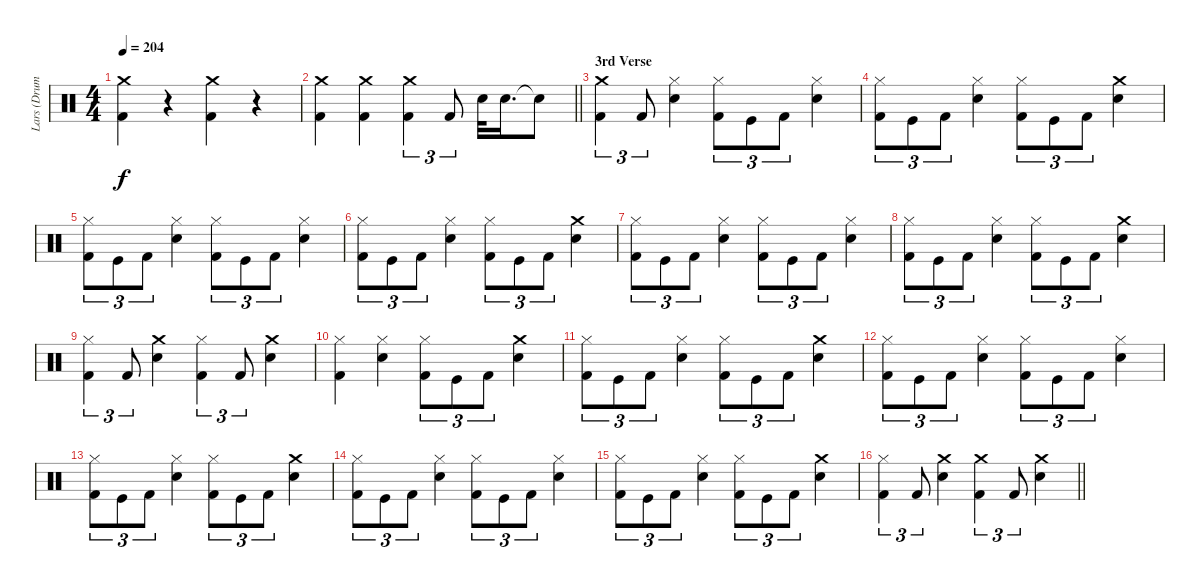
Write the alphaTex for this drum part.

\track ("Lars (Drums)" "Lars (Drum") {instrument percussion}
\staff {score}
\articulation defaults
\ts (4 4)
\tempo 204
\clef neutral
\ks c
("Kick (hit) 2" "Crash medium (hit)").4{dy f} r.4 ("Kick (hit) 2" "Crash medium (hit)").4 r.4 |
\barLineRight lightlight
("Kick (hit) 2" "Crash medium (hit)").4 ("Kick (hit) 2" "Crash medium (hit)").4 ("Kick (hit) 2" "Crash medium (hit)").4{tu (3 2)} "Kick (hit) 2".8{tu (3 2)} "Snare (hit) 2".32 "Snare (hit) 2".16{d} "Snare (hit)"{t}.8 |
\section ("" "3rd Verse")
("Crash medium (hit)" "Kick (hit) 2").4{tu (3 2)} "Kick (hit) 2".8{tu (3 2)} ("Snare (hit) 2" "Hi-Hat (closed)").4 ("Hi-Hat (closed)" "Kick (hit) 2").8{tu (3 2)} "Kick (hit)".8{tu (3 2)} "Kick (hit) 2".8{tu (3 2)} ("Hi-Hat (closed)" "Snare (hit) 2").4 |
("Hi-Hat (closed)" "Kick (hit) 2").8{tu (3 2)} "Kick (hit)".8{tu (3 2)} "Kick (hit) 2".8{tu (3 2)} ("Snare (hit) 2" "Hi-Hat (closed)").4 ("Hi-Hat (closed)" "Kick (hit) 2").8{tu (3 2)} "Kick (hit)".8{tu (3 2)} "Kick (hit) 2".8{tu (3 2)} ("Crash medium (hit)" "Snare (hit) 2").4 |
("Hi-Hat (closed)" "Kick (hit) 2").8{tu (3 2)} "Kick (hit)".8{tu (3 2)} "Kick (hit) 2".8{tu (3 2)} ("Snare (hit) 2" "Hi-Hat (closed)").4 ("Hi-Hat (closed)" "Kick (hit) 2").8{tu (3 2)} "Kick (hit)".8{tu (3 2)} "Kick (hit) 2".8{tu (3 2)} ("Hi-Hat (closed)" "Snare (hit) 2").4 |
("Hi-Hat (closed)" "Kick (hit) 2").8{tu (3 2)} "Kick (hit)".8{tu (3 2)} "Kick (hit) 2".8{tu (3 2)} ("Snare (hit) 2" "Hi-Hat (closed)").4 ("Hi-Hat (closed)" "Kick (hit) 2").8{tu (3 2)} "Kick (hit)".8{tu (3 2)} "Kick (hit) 2".8{tu (3 2)} ("Crash medium (hit)" "Snare (hit) 2").4 |
("Hi-Hat (closed)" "Kick (hit) 2").8{tu (3 2)} "Kick (hit)".8{tu (3 2)} "Kick (hit) 2".8{tu (3 2)} ("Snare (hit) 2" "Hi-Hat (closed)").4 ("Hi-Hat (closed)" "Kick (hit) 2").8{tu (3 2)} "Kick (hit)".8{tu (3 2)} "Kick (hit) 2".8{tu (3 2)} ("Hi-Hat (closed)" "Snare (hit) 2").4 |
("Hi-Hat (closed)" "Kick (hit) 2").8{tu (3 2)} "Kick (hit)".8{tu (3 2)} "Kick (hit) 2".8{tu (3 2)} ("Snare (hit) 2" "Hi-Hat (closed)").4 ("Hi-Hat (closed)" "Kick (hit) 2").8{tu (3 2)} "Kick (hit)".8{tu (3 2)} "Kick (hit) 2".8{tu (3 2)} ("Crash medium (hit)" "Snare (hit) 2").4 |
("Kick (hit) 2" "Hi-Hat (closed)").4{tu (3 2)} "Kick (hit) 2".8{tu (3 2)} ("Crash medium (hit)" "Snare (hit) 2").4 ("Kick (hit) 2" "Hi-Hat (closed)").4{tu (3 2)} "Kick (hit) 2".8{tu (3 2)} ("Crash medium (hit)" "Snare (hit) 2").4 |
("Hi-Hat (closed)" "Kick (hit) 2").4 ("Snare (hit) 2" "Hi-Hat (closed)").4 ("Hi-Hat (closed)" "Kick (hit) 2").8{tu (3 2)} "Kick (hit)".8{tu (3 2)} "Kick (hit) 2".8{tu (3 2)} ("Crash medium (hit)" "Snare (hit) 2").4 |
("Hi-Hat (closed)" "Kick (hit) 2").8{tu (3 2)} "Kick (hit)".8{tu (3 2)} "Kick (hit) 2".8{tu (3 2)} ("Snare (hit) 2" "Hi-Hat (closed)").4 ("Hi-Hat (closed)" "Kick (hit) 2").8{tu (3 2)} "Kick (hit)".8{tu (3 2)} "Kick (hit) 2".8{tu (3 2)} ("Crash medium (hit)" "Snare (hit) 2").4 |
("Hi-Hat (closed)" "Kick (hit) 2").8{tu (3 2)} "Kick (hit)".8{tu (3 2)} "Kick (hit) 2".8{tu (3 2)} ("Snare (hit) 2" "Hi-Hat (closed)").4 ("Hi-Hat (closed)" "Kick (hit) 2").8{tu (3 2)} "Kick (hit)".8{tu (3 2)} "Kick (hit) 2".8{tu (3 2)} ("Hi-Hat (closed)" "Snare (hit) 2").4 |
("Hi-Hat (closed)" "Kick (hit) 2").8{tu (3 2)} "Kick (hit)".8{tu (3 2)} "Kick (hit) 2".8{tu (3 2)} ("Snare (hit) 2" "Hi-Hat (closed)").4 ("Hi-Hat (closed)" "Kick (hit) 2").8{tu (3 2)} "Kick (hit)".8{tu (3 2)} "Kick (hit) 2".8{tu (3 2)} ("Crash medium (hit)" "Snare (hit) 2").4 |
("Hi-Hat (closed)" "Kick (hit) 2").8{tu (3 2)} "Kick (hit)".8{tu (3 2)} "Kick (hit) 2".8{tu (3 2)} ("Snare (hit) 2" "Hi-Hat (closed)").4 ("Hi-Hat (closed)" "Kick (hit) 2").8{tu (3 2)} "Kick (hit)".8{tu (3 2)} "Kick (hit) 2".8{tu (3 2)} ("Hi-Hat (closed)" "Snare (hit) 2").4 |
("Hi-Hat (closed)" "Kick (hit) 2").8{tu (3 2)} "Kick (hit)".8{tu (3 2)} "Kick (hit) 2".8{tu (3 2)} ("Snare (hit) 2" "Hi-Hat (closed)").4 ("Hi-Hat (closed)" "Kick (hit) 2").8{tu (3 2)} "Kick (hit)".8{tu (3 2)} "Kick (hit) 2".8{tu (3 2)} ("Crash medium (hit)" "Snare (hit) 2").4 |
\barLineRight lightlight
("Hi-Hat (closed)" "Kick (hit) 2").4{tu (3 2)} "Kick (hit) 2".8{tu (3 2)} ("Crash medium (hit)" "Snare (hit) 2").4 ("Crash medium (hit)" "Kick (hit) 2").4{tu (3 2)} "Kick (hit) 2".8{tu (3 2)} ("Crash medium (hit)" "Snare (hit) 2").4
